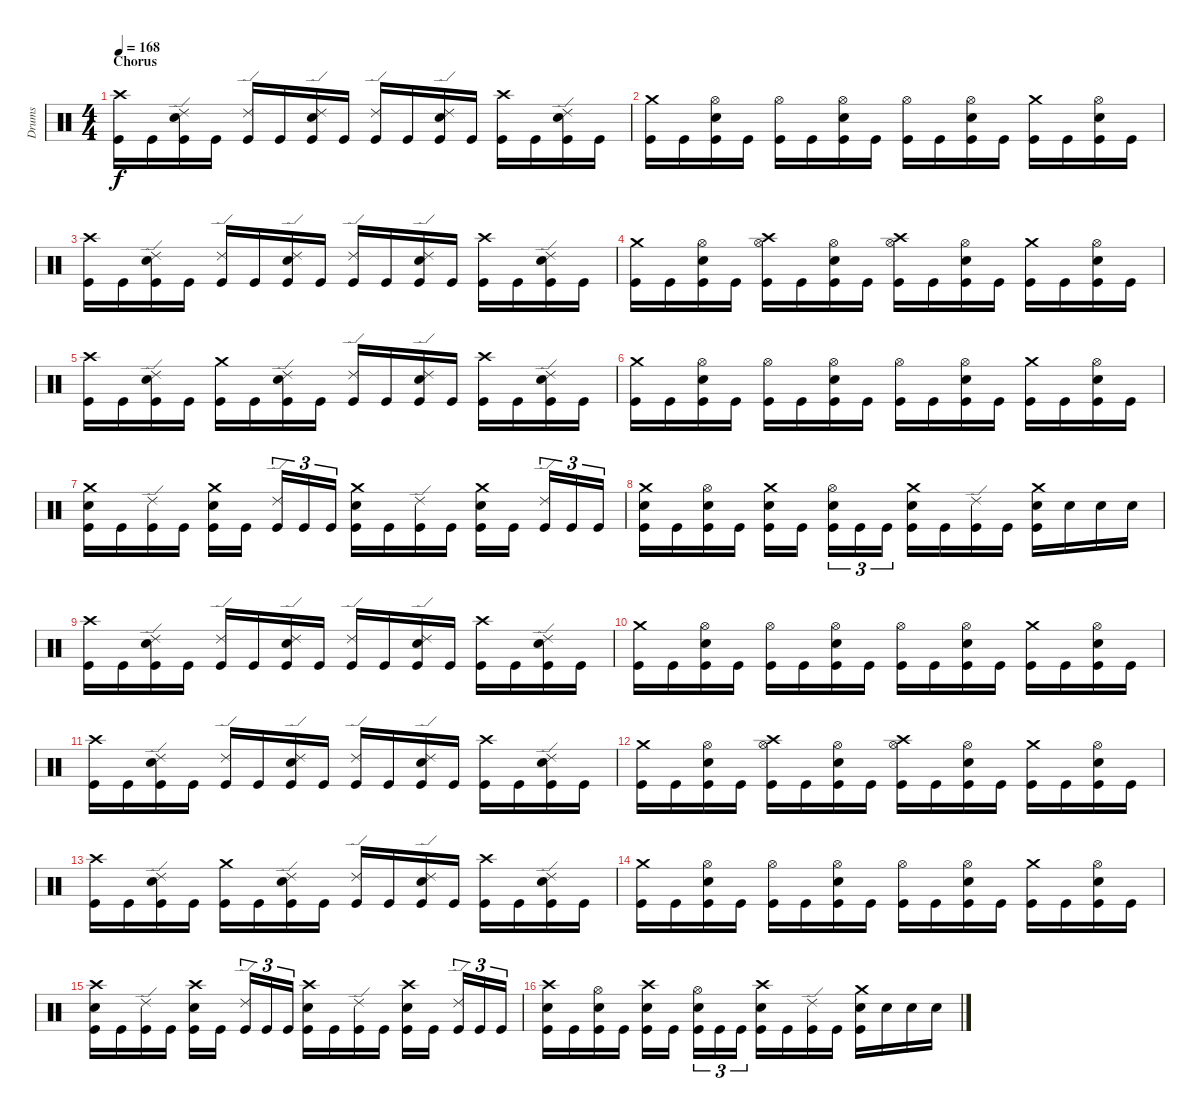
\track ("Drums" "Drums") {instrument percussion}
\staff {score}
\articulation defaults
\ts (4 4)
\section ("" "Chorus")
\tempo 168
\clef neutral
\ks c
("Crash high (hit)" "Kick (hit)").16{dy f} "Kick (hit)".16 ("Ride (edge) 2" "Electric Snare (hit)" "Kick (hit)").16 "Kick (hit)".16 ("Ride (edge) 2" "Kick (hit)").16 "Kick (hit)".16 ("Ride (edge) 2" "Electric Snare (hit)" "Kick (hit)").16 "Kick (hit)".16 ("Ride (edge) 2" "Kick (hit)").16 "Kick (hit)".16 ("Ride (edge) 2" "Electric Snare (hit)" "Kick (hit)").16 "Kick (hit)".16 ("Crash high (hit)" "Kick (hit)").16 "Kick (hit)".16 ("Ride (edge) 2" "Electric Snare (hit)" "Kick (hit)").16 "Kick (hit)".16 |
("Crash medium (hit)" "Kick (hit)").16 "Kick (hit)".16 ("Hi-Hat (open)" "Electric Snare (hit)" "Kick (hit)").16 "Kick (hit)".16 ("Hi-Hat (open)" "Kick (hit)").16 "Kick (hit)".16 ("Hi-Hat (open)" "Electric Snare (hit)" "Kick (hit)").16 "Kick (hit)".16 ("Hi-Hat (open)" "Kick (hit)").16 "Kick (hit)".16 ("Hi-Hat (open)" "Electric Snare (hit)" "Kick (hit)").16 "Kick (hit)".16 ("Crash medium (hit)" "Kick (hit)").16 "Kick (hit)".16 ("Hi-Hat (open)" "Electric Snare (hit)" "Kick (hit)").16 "Kick (hit)".16 |
("Crash high (hit)" "Kick (hit)").16 "Kick (hit)".16 ("Ride (edge) 2" "Electric Snare (hit)" "Kick (hit)").16 "Kick (hit)".16 ("Ride (edge) 2" "Kick (hit)").16 "Kick (hit)".16 ("Ride (edge) 2" "Electric Snare (hit)" "Kick (hit)").16 "Kick (hit)".16 ("Ride (edge) 2" "Kick (hit)").16 "Kick (hit)".16 ("Ride (edge) 2" "Electric Snare (hit)" "Kick (hit)").16 "Kick (hit)".16 ("Crash high (hit)" "Kick (hit)").16 "Kick (hit)".16 ("Ride (edge) 2" "Electric Snare (hit)" "Kick (hit)").16 "Kick (hit)".16 |
("Crash medium (hit)" "Kick (hit)").16 "Kick (hit)".16 ("Hi-Hat (open)" "Electric Snare (hit)" "Kick (hit)").16 "Kick (hit)".16 ("Hi-Hat (open)" "Crash high (hit)" "Kick (hit)").16 "Kick (hit)".16 ("Hi-Hat (open)" "Electric Snare (hit)" "Kick (hit)").16 "Kick (hit)".16 ("Hi-Hat (open)" "Crash high (hit)" "Kick (hit)").16 "Kick (hit)".16 ("Hi-Hat (open)" "Electric Snare (hit)" "Kick (hit)").16 "Kick (hit)".16 ("Crash medium (hit)" "Kick (hit)").16 "Kick (hit)".16 ("Hi-Hat (open)" "Electric Snare (hit)" "Kick (hit)").16 "Kick (hit)".16 |
("Crash high (hit)" "Kick (hit)").16 "Kick (hit)".16 ("Ride (edge) 2" "Electric Snare (hit)" "Kick (hit)").16 "Kick (hit)".16 ("Crash medium (hit)" "Kick (hit)").16 "Kick (hit)".16 ("Ride (edge) 2" "Electric Snare (hit)" "Kick (hit)").16 "Kick (hit)".16 ("Ride (edge) 2" "Kick (hit)").16 "Kick (hit)".16 ("Ride (edge) 2" "Electric Snare (hit)" "Kick (hit)").16 "Kick (hit)".16 ("Crash high (hit)" "Kick (hit)").16 "Kick (hit)".16 ("Ride (edge) 2" "Electric Snare (hit)" "Kick (hit)").16 "Kick (hit)".16 |
("Crash medium (hit)" "Kick (hit)").16 "Kick (hit)".16 ("Hi-Hat (open)" "Electric Snare (hit)" "Kick (hit)").16 "Kick (hit)".16 ("Hi-Hat (open)" "Kick (hit)").16 "Kick (hit)".16 ("Hi-Hat (open)" "Electric Snare (hit)" "Kick (hit)").16 "Kick (hit)".16 ("Hi-Hat (open)" "Kick (hit)").16 "Kick (hit)".16 ("Hi-Hat (open)" "Electric Snare (hit)" "Kick (hit)").16 "Kick (hit)".16 ("Crash medium (hit)" "Kick (hit)").16 "Kick (hit)".16 ("Hi-Hat (open)" "Electric Snare (hit)" "Kick (hit)").16 "Kick (hit)".16 |
("Crash medium (hit)" "Electric Snare (hit)" "Kick (hit)").16 "Kick (hit)".16 ("Ride (edge) 2" "Kick (hit)").16 "Kick (hit)".16 ("Crash medium (hit)" "Electric Snare (hit)" "Kick (hit)").16 "Kick (hit)".16 ("Ride (edge) 2" "Kick (hit)").16{tu (3 2)} "Kick (hit)".16{tu (3 2)} "Kick (hit)".16{tu (3 2)} ("Crash medium (hit)" "Electric Snare (hit)" "Kick (hit)").16 "Kick (hit)".16 ("Ride (edge) 2" "Kick (hit)").16 "Kick (hit)".16 ("Crash medium (hit)" "Electric Snare (hit)" "Kick (hit)").16 "Kick (hit)".16 ("Ride (edge) 2" "Kick (hit)").16{tu (3 2)} "Kick (hit)".16{tu (3 2)} "Kick (hit)".16{tu (3 2)} |
("Crash medium (hit)" "Electric Snare (hit)" "Kick (hit)").16 "Kick (hit)".16 ("Hi-Hat (open)" "Electric Snare (hit)" "Kick (hit)").16 "Kick (hit)".16 ("Crash medium (hit)" "Electric Snare (hit)" "Kick (hit)").16 "Kick (hit)".16 ("Hi-Hat (open)" "Electric Snare (hit)" "Kick (hit)").16{tu (3 2)} "Kick (hit)".16{tu (3 2)} "Kick (hit)".16{tu (3 2)} ("Crash medium (hit)" "Electric Snare (hit)" "Kick (hit)").16 "Kick (hit)".16 ("Ride (edge) 2" "Kick (hit)").16 "Kick (hit)".16 ("Crash medium (hit)" "Electric Snare (hit)" "Kick (hit)").16 "Electric Snare (hit)".16 "Electric Snare (hit)".16 "Electric Snare (hit)".16 |
("Crash high (hit)" "Kick (hit)").16 "Kick (hit)".16 ("Ride (edge) 2" "Electric Snare (hit)" "Kick (hit)").16 "Kick (hit)".16 ("Ride (edge) 2" "Kick (hit)").16 "Kick (hit)".16 ("Ride (edge) 2" "Electric Snare (hit)" "Kick (hit)").16 "Kick (hit)".16 ("Ride (edge) 2" "Kick (hit)").16 "Kick (hit)".16 ("Ride (edge) 2" "Electric Snare (hit)" "Kick (hit)").16 "Kick (hit)".16 ("Crash high (hit)" "Kick (hit)").16 "Kick (hit)".16 ("Ride (edge) 2" "Electric Snare (hit)" "Kick (hit)").16 "Kick (hit)".16 |
("Crash medium (hit)" "Kick (hit)").16 "Kick (hit)".16 ("Hi-Hat (open)" "Electric Snare (hit)" "Kick (hit)").16 "Kick (hit)".16 ("Hi-Hat (open)" "Kick (hit)").16 "Kick (hit)".16 ("Hi-Hat (open)" "Electric Snare (hit)" "Kick (hit)").16 "Kick (hit)".16 ("Hi-Hat (open)" "Kick (hit)").16 "Kick (hit)".16 ("Hi-Hat (open)" "Electric Snare (hit)" "Kick (hit)").16 "Kick (hit)".16 ("Crash medium (hit)" "Kick (hit)").16 "Kick (hit)".16 ("Hi-Hat (open)" "Electric Snare (hit)" "Kick (hit)").16 "Kick (hit)".16 |
("Crash high (hit)" "Kick (hit)").16 "Kick (hit)".16 ("Ride (edge) 2" "Electric Snare (hit)" "Kick (hit)").16 "Kick (hit)".16 ("Ride (edge) 2" "Kick (hit)").16 "Kick (hit)".16 ("Ride (edge) 2" "Electric Snare (hit)" "Kick (hit)").16 "Kick (hit)".16 ("Ride (edge) 2" "Kick (hit)").16 "Kick (hit)".16 ("Ride (edge) 2" "Electric Snare (hit)" "Kick (hit)").16 "Kick (hit)".16 ("Crash high (hit)" "Kick (hit)").16 "Kick (hit)".16 ("Ride (edge) 2" "Electric Snare (hit)" "Kick (hit)").16 "Kick (hit)".16 |
("Crash medium (hit)" "Kick (hit)").16 "Kick (hit)".16 ("Hi-Hat (open)" "Electric Snare (hit)" "Kick (hit)").16 "Kick (hit)".16 ("Hi-Hat (open)" "Crash high (hit)" "Kick (hit)").16 "Kick (hit)".16 ("Hi-Hat (open)" "Electric Snare (hit)" "Kick (hit)").16 "Kick (hit)".16 ("Hi-Hat (open)" "Crash high (hit)" "Kick (hit)").16 "Kick (hit)".16 ("Hi-Hat (open)" "Electric Snare (hit)" "Kick (hit)").16 "Kick (hit)".16 ("Crash medium (hit)" "Kick (hit)").16 "Kick (hit)".16 ("Hi-Hat (open)" "Electric Snare (hit)" "Kick (hit)").16 "Kick (hit)".16 |
("Crash high (hit)" "Kick (hit)").16 "Kick (hit)".16 ("Ride (edge) 2" "Electric Snare (hit)" "Kick (hit)").16 "Kick (hit)".16 ("Crash medium (hit)" "Kick (hit)").16 "Kick (hit)".16 ("Ride (edge) 2" "Electric Snare (hit)" "Kick (hit)").16 "Kick (hit)".16 ("Ride (edge) 2" "Kick (hit)").16 "Kick (hit)".16 ("Ride (edge) 2" "Electric Snare (hit)" "Kick (hit)").16 "Kick (hit)".16 ("Crash high (hit)" "Kick (hit)").16 "Kick (hit)".16 ("Ride (edge) 2" "Electric Snare (hit)" "Kick (hit)").16 "Kick (hit)".16 |
("Crash medium (hit)" "Kick (hit)").16 "Kick (hit)".16 ("Hi-Hat (open)" "Electric Snare (hit)" "Kick (hit)").16 "Kick (hit)".16 ("Hi-Hat (open)" "Kick (hit)").16 "Kick (hit)".16 ("Hi-Hat (open)" "Electric Snare (hit)" "Kick (hit)").16 "Kick (hit)".16 ("Hi-Hat (open)" "Kick (hit)").16 "Kick (hit)".16 ("Hi-Hat (open)" "Electric Snare (hit)" "Kick (hit)").16 "Kick (hit)".16 ("Crash medium (hit)" "Kick (hit)").16 "Kick (hit)".16 ("Hi-Hat (open)" "Electric Snare (hit)" "Kick (hit)").16 "Kick (hit)".16 |
("Crash high (hit)" "Electric Snare (hit)" "Kick (hit)").16 "Kick (hit)".16 ("Ride (edge) 2" "Kick (hit)").16 "Kick (hit)".16 ("Crash high (hit)" "Electric Snare (hit)" "Kick (hit)").16 "Kick (hit)".16 ("Ride (edge) 2" "Kick (hit)").16{tu (3 2)} "Kick (hit)".16{tu (3 2)} "Kick (hit)".16{tu (3 2)} ("Crash high (hit)" "Electric Snare (hit)" "Kick (hit)").16 "Kick (hit)".16 ("Ride (edge) 2" "Kick (hit)").16 "Kick (hit)".16 ("Crash high (hit)" "Electric Snare (hit)" "Kick (hit)").16 "Kick (hit)".16 ("Ride (edge) 2" "Kick (hit)").16{tu (3 2)} "Kick (hit)".16{tu (3 2)} "Kick (hit)".16{tu (3 2)} |
("Crash high (hit)" "Electric Snare (hit)" "Kick (hit)").16 "Kick (hit)".16 ("Hi-Hat (open)" "Electric Snare (hit)" "Kick (hit)").16 "Kick (hit)".16 ("Crash high (hit)" "Electric Snare (hit)" "Kick (hit)").16 "Kick (hit)".16 ("Hi-Hat (open)" "Electric Snare (hit)" "Kick (hit)").16{tu (3 2)} "Kick (hit)".16{tu (3 2)} "Kick (hit)".16{tu (3 2)} ("Crash high (hit)" "Electric Snare (hit)" "Kick (hit)").16 "Kick (hit)".16 ("Ride (edge) 2" "Kick (hit)").16 "Kick (hit)".16 ("Crash medium (hit)" "Electric Snare (hit)" "Kick (hit)").16 "Electric Snare (hit)".16 "Electric Snare (hit)".16 "Electric Snare (hit)".16
